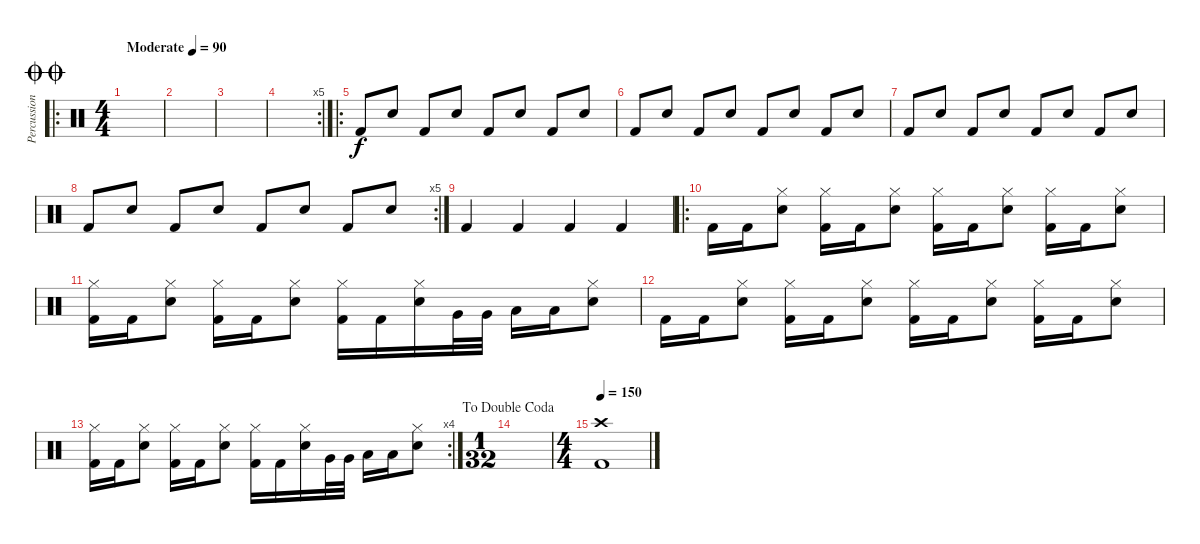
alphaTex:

\track ("Percussion" "Percussion") {instrument percussion}
\staff {score}
\articulation defaults
\ro
\ts (4 4)
\jump doublecoda
\tempo (90 "Moderate")
\clef neutral
\ks c
|
|
|
\rc 5
|
\ro "Kick (hit) 2".8 "Snare (hit) 2".8 "Kick (hit) 2".8 "Snare (hit) 2".8 "Kick (hit) 2".8 "Snare (hit) 2".8 "Kick (hit) 2".8 "Snare (hit) 2".8
|
"Kick (hit) 2".8 "Snare (hit) 2".8 "Kick (hit) 2".8 "Snare (hit) 2".8 "Kick (hit) 2".8 "Snare (hit) 2".8 "Kick (hit) 2".8 "Snare (hit) 2".8 |
"Kick (hit) 2".8 "Snare (hit) 2".8 "Kick (hit) 2".8 "Snare (hit) 2".8 "Kick (hit) 2".8 "Snare (hit) 2".8 "Kick (hit) 2".8 "Snare (hit) 2".8 |
\rc 5 "Kick (hit) 2".8 "Snare (hit) 2".8 "Kick (hit) 2".8 "Snare (hit) 2".8 "Kick (hit) 2".8 "Snare (hit) 2".8 "Kick (hit) 2".8 "Snare (hit) 2".8
|
"Kick (hit) 2".4{volume 16} "Kick (hit) 2".4 "Kick (hit) 2".4 "Kick (hit) 2".4 |
\ro "Kick (hit) 2".16 "Kick (hit) 2".16
("Hi-Hat (closed)" "Snare (hit) 2").8 ("Hi-Hat (closed)" "Kick (hit) 2").16 "Kick (hit) 2".16 ("Hi-Hat (closed)" "Snare (hit) 2").8 ("Hi-Hat (closed)" "Kick (hit) 2").16 "Kick (hit) 2".16 ("Hi-Hat (closed)" "Snare (hit) 2").8 ("Hi-Hat (closed)" "Kick (hit) 2").16 "Kick (hit) 2".16 ("Hi-Hat (closed)" "Snare (hit) 2").8 |
("Hi-Hat (closed)" "Kick (hit) 2").16 "Kick (hit) 2".16 ("Hi-Hat (closed)" "Snare (hit) 2").8 ("Hi-Hat (closed)" "Kick (hit) 2").16 "Kick (hit) 2".16 ("Hi-Hat (closed)" "Snare (hit) 2").8 ("Hi-Hat (closed)" "Kick (hit) 2").16 "Kick (hit) 2".16 ("Hi-Hat (closed)" "Snare (hit) 2").16 "Very Low Tom (hit)".32 "Very Low Tom (hit)".32 "Low Tom (hit)".16 "Low Tom (hit)".16 ("Hi-Hat (closed)" "Snare (hit) 2").8 |
"Kick (hit) 2".16 "Kick (hit) 2".16 ("Hi-Hat (closed)" "Snare (hit) 2").8 ("Hi-Hat (closed)" "Kick (hit) 2").16 "Kick (hit) 2".16 ("Hi-Hat (closed)" "Snare (hit) 2").8 ("Hi-Hat (closed)" "Kick (hit) 2").16 "Kick (hit) 2".16 ("Hi-Hat (closed)" "Snare (hit) 2").8 ("Hi-Hat (closed)" "Kick (hit) 2").16 "Kick (hit) 2".16 ("Hi-Hat (closed)" "Snare (hit) 2").8 |
\rc 4
("Hi-Hat (closed)" "Kick (hit) 2").16 "Kick (hit) 2".16 ("Hi-Hat (closed)" "Snare (hit) 2").8 ("Hi-Hat (closed)" "Kick (hit) 2").16 "Kick (hit) 2".16 ("Hi-Hat (closed)" "Snare (hit) 2").8 ("Hi-Hat (closed)" "Kick (hit) 2").16 "Kick (hit) 2".16 ("Hi-Hat (closed)" "Snare (hit) 2").16 "Very Low Tom (hit)".32 "Very Low Tom (hit)".32 "Low Tom (hit)".16 "Low Tom (hit)".16 ("Hi-Hat (closed)" "Snare (hit) 2").8 |
\ts (1 32)
\jump dadoublecoda
|
\ts (4 4)
\tempo 150
("Crash high (hit)" "Kick (hit) 2").1
